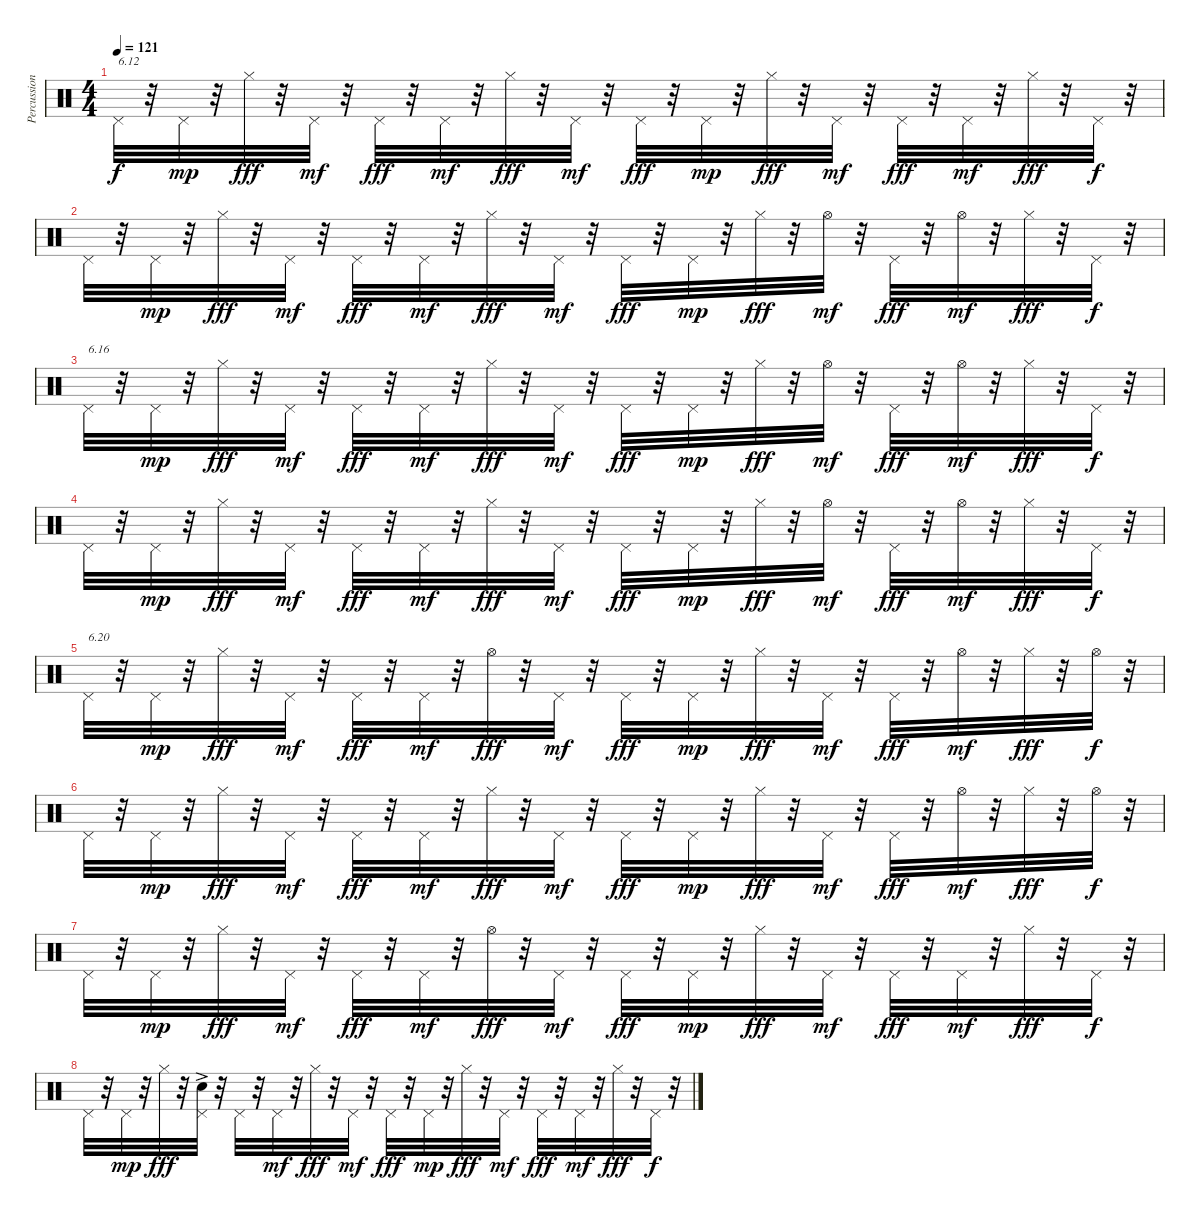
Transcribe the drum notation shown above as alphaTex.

\track ("Percussions" "Percussion") {instrument percussion}
\staff {score}
\articulation defaults
\ts (4 4)
\tempo 121
\clef neutral
\ks c "Pedal Hi-Hat (hit)".32{txt "6.12" dy f}
r.32 "Pedal Hi-Hat (hit)".32{dy mp} r.32 "Hi-Hat (closed)".32{dy fff} r.32 "Pedal Hi-Hat (hit)".32{dy mf} r.32 "Pedal Hi-Hat (hit)".32{dy fff} r.32 "Pedal Hi-Hat (hit)".32{dy mf} r.32 "Hi-Hat (closed)".32{dy fff} r.32 "Pedal Hi-Hat (hit)".32{dy mf} r.32 "Pedal Hi-Hat (hit)".32{dy fff} r.32 "Pedal Hi-Hat (hit)".32{dy mp} r.32 "Hi-Hat (closed)".32{dy fff} r.32 "Pedal Hi-Hat (hit)".32{dy mf} r.32 "Pedal Hi-Hat (hit)".32{dy fff} r.32 "Pedal Hi-Hat (hit)".32{dy mf} r.32 "Hi-Hat (closed)".32{dy fff} r.32 "Pedal Hi-Hat (hit)".32{dy f} r.32 |
"Pedal Hi-Hat (hit)".32 r.32 "Pedal Hi-Hat (hit)".32{dy mp} r.32 "Hi-Hat (closed)".32{dy fff} r.32 "Pedal Hi-Hat (hit)".32{dy mf} r.32 "Pedal Hi-Hat (hit)".32{dy fff} r.32 "Pedal Hi-Hat (hit)".32{dy mf} r.32 "Hi-Hat (closed)".32{dy fff} r.32 "Pedal Hi-Hat (hit)".32{dy mf} r.32 "Pedal Hi-Hat (hit)".32{dy fff} r.32 "Pedal Hi-Hat (hit)".32{dy mp} r.32 "Hi-Hat (closed)".32{dy fff} r.32 "Hi-Hat (open)".32{dy mf} r.32 "Pedal Hi-Hat (hit)".32{dy fff} r.32 "Hi-Hat (open)".32{dy mf} r.32 "Hi-Hat (closed)".32{dy fff} r.32 "Pedal Hi-Hat (hit)".32{dy f} r.32 |
"Pedal Hi-Hat (hit)".32{txt "6.16"} r.32 "Pedal Hi-Hat (hit)".32{dy mp} r.32 "Hi-Hat (closed)".32{dy fff} r.32 "Pedal Hi-Hat (hit)".32{dy mf} r.32 "Pedal Hi-Hat (hit)".32{dy fff} r.32 "Pedal Hi-Hat (hit)".32{dy mf} r.32 "Hi-Hat (closed)".32{dy fff} r.32 "Pedal Hi-Hat (hit)".32{dy mf} r.32 "Pedal Hi-Hat (hit)".32{dy fff} r.32 "Pedal Hi-Hat (hit)".32{dy mp} r.32 "Hi-Hat (closed)".32{dy fff} r.32 "Hi-Hat (open)".32{dy mf} r.32 "Pedal Hi-Hat (hit)".32{dy fff} r.32 "Hi-Hat (open)".32{dy mf} r.32 "Hi-Hat (closed)".32{dy fff} r.32 "Pedal Hi-Hat (hit)".32{dy f} r.32 |
"Pedal Hi-Hat (hit)".32 r.32 "Pedal Hi-Hat (hit)".32{dy mp} r.32 "Hi-Hat (closed)".32{dy fff} r.32 "Pedal Hi-Hat (hit)".32{dy mf} r.32 "Pedal Hi-Hat (hit)".32{dy fff} r.32 "Pedal Hi-Hat (hit)".32{dy mf} r.32 "Hi-Hat (closed)".32{dy fff} r.32 "Pedal Hi-Hat (hit)".32{dy mf} r.32 "Pedal Hi-Hat (hit)".32{dy fff} r.32 "Pedal Hi-Hat (hit)".32{dy mp} r.32 "Hi-Hat (closed)".32{dy fff} r.32 "Hi-Hat (open)".32{dy mf} r.32 "Pedal Hi-Hat (hit)".32{dy fff} r.32 "Hi-Hat (open)".32{dy mf} r.32 "Hi-Hat (closed)".32{dy fff} r.32 "Pedal Hi-Hat (hit)".32{dy f} r.32 |
"Pedal Hi-Hat (hit)".32{txt "6.20"} r.32 "Pedal Hi-Hat (hit)".32{dy mp} r.32 "Hi-Hat (closed)".32{dy fff} r.32 "Pedal Hi-Hat (hit)".32{dy mf} r.32 "Pedal Hi-Hat (hit)".32{dy fff} r.32 "Pedal Hi-Hat (hit)".32{dy mf} r.32 "Hi-Hat (open)".32{dy fff} r.32 "Pedal Hi-Hat (hit)".32{dy mf} r.32 "Pedal Hi-Hat (hit)".32{dy fff} r.32 "Pedal Hi-Hat (hit)".32{dy mp} r.32 "Hi-Hat (closed)".32{dy fff} r.32 "Pedal Hi-Hat (hit)".32{dy mf} r.32 "Pedal Hi-Hat (hit)".32{dy fff} r.32 "Hi-Hat (open)".32{dy mf} r.32 "Hi-Hat (closed)".32{dy fff} r.32 "Hi-Hat (open)".32{dy f} r.32 |
"Pedal Hi-Hat (hit)".32 r.32 "Pedal Hi-Hat (hit)".32{dy mp} r.32 "Hi-Hat (closed)".32{dy fff} r.32 "Pedal Hi-Hat (hit)".32{dy mf} r.32 "Pedal Hi-Hat (hit)".32{dy fff} r.32 "Pedal Hi-Hat (hit)".32{dy mf} r.32 "Hi-Hat (closed)".32{dy fff} r.32 "Pedal Hi-Hat (hit)".32{dy mf} r.32 "Pedal Hi-Hat (hit)".32{dy fff} r.32 "Pedal Hi-Hat (hit)".32{dy mp} r.32 "Hi-Hat (closed)".32{dy fff} r.32 "Pedal Hi-Hat (hit)".32{dy mf} r.32 "Pedal Hi-Hat (hit)".32{dy fff} r.32 "Hi-Hat (open)".32{dy mf} r.32 "Hi-Hat (closed)".32{dy fff} r.32 "Hi-Hat (open)".32{dy f} r.32 |
"Pedal Hi-Hat (hit)".32 r.32 "Pedal Hi-Hat (hit)".32{dy mp} r.32 "Hi-Hat (closed)".32{dy fff} r.32 "Pedal Hi-Hat (hit)".32{dy mf} r.32 "Pedal Hi-Hat (hit)".32{dy fff} r.32 "Pedal Hi-Hat (hit)".32{dy mf} r.32 "Hi-Hat (open)".32{dy fff} r.32 "Pedal Hi-Hat (hit)".32{dy mf} r.32 "Pedal Hi-Hat (hit)".32{dy fff} r.32 "Pedal Hi-Hat (hit)".32{dy mp} r.32 "Hi-Hat (closed)".32{dy fff} r.32 "Pedal Hi-Hat (hit)".32{dy mf} r.32 "Pedal Hi-Hat (hit)".32{dy fff} r.32 "Pedal Hi-Hat (hit)".32{dy mf} r.32 "Hi-Hat (closed)".32{dy fff} r.32 "Pedal Hi-Hat (hit)".32{dy f} r.32 |
"Pedal Hi-Hat (hit)".32 r.32 "Pedal Hi-Hat (hit)".32{dy mp} r.32 "Hi-Hat (closed)".32{dy fff} r.32 ("Pedal Hi-Hat (hit)" "Electric Snare (hit)"{ac}).32 r.32 "Pedal Hi-Hat (hit)".32 r.32 "Pedal Hi-Hat (hit)".32{dy mf} r.32 "Hi-Hat (closed)".32{dy fff} r.32 "Pedal Hi-Hat (hit)".32{dy mf} r.32 "Pedal Hi-Hat (hit)".32{dy fff} r.32 "Pedal Hi-Hat (hit)".32{dy mp} r.32 "Hi-Hat (closed)".32{dy fff} r.32 "Pedal Hi-Hat (hit)".32{dy mf} r.32 "Pedal Hi-Hat (hit)".32{dy fff} r.32 "Pedal Hi-Hat (hit)".32{dy mf} r.32 "Hi-Hat (closed)".32{dy fff} r.32 "Pedal Hi-Hat (hit)".32{dy f} r.32
